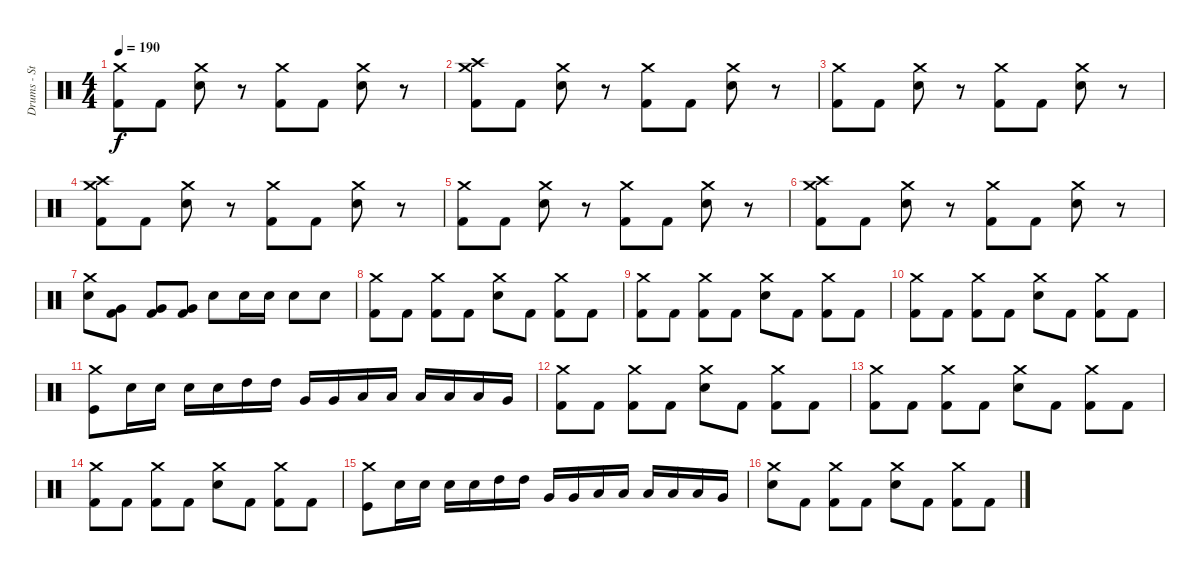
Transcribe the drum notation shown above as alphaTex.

\track ("Drums - Stevo 32" "Drums - St") {instrument percussion}
\staff {score}
\articulation defaults
\ts (4 4)
\tempo 190
\clef neutral
\ks c
("Crash medium (hit)" "Kick (hit) 2").8{dy f} "Kick (hit) 2".8 ("Crash medium (hit)" "Electric Snare (hit)").8 r.8 ("Crash medium (hit)" "Kick (hit) 2").8 "Kick (hit) 2".8 ("Crash medium (hit)" "Electric Snare (hit)").8 r.8 |
("Crash high (hit)" "Crash medium (hit)" "Kick (hit) 2").8 "Kick (hit) 2".8 ("Crash medium (hit)" "Electric Snare (hit)").8 r.8 ("Crash medium (hit)" "Kick (hit) 2").8 "Kick (hit) 2".8 ("Crash medium (hit)" "Electric Snare (hit)").8 r.8 |
("Crash medium (hit)" "Kick (hit) 2").8 "Kick (hit) 2".8 ("Crash medium (hit)" "Electric Snare (hit)").8 r.8 ("Crash medium (hit)" "Kick (hit) 2").8 "Kick (hit) 2".8 ("Crash medium (hit)" "Electric Snare (hit)").8 r.8 |
("Crash high (hit)" "Crash medium (hit)" "Kick (hit) 2").8 "Kick (hit) 2".8 ("Crash medium (hit)" "Electric Snare (hit)").8 r.8 ("Crash medium (hit)" "Kick (hit) 2").8 "Kick (hit) 2".8 ("Crash medium (hit)" "Electric Snare (hit)").8 r.8 |
("Crash medium (hit)" "Kick (hit) 2").8 "Kick (hit) 2".8 ("Crash medium (hit)" "Electric Snare (hit)").8 r.8 ("Crash medium (hit)" "Kick (hit) 2").8 "Kick (hit) 2".8 ("Crash medium (hit)" "Electric Snare (hit)").8 r.8 |
("Crash high (hit)" "Crash medium (hit)" "Kick (hit) 2").8 "Kick (hit) 2".8 ("Crash medium (hit)" "Electric Snare (hit)").8 r.8 ("Crash medium (hit)" "Kick (hit) 2").8 "Kick (hit) 2".8 ("Crash medium (hit)" "Electric Snare (hit)").8 r.8 |
("Crash medium (hit)" "Electric Snare (hit)").8 ("Very Low Tom (hit)" "Kick (hit) 2").8 ("Very Low Tom (hit)" "Kick (hit) 2").8 ("Very Low Tom (hit)" "Kick (hit) 2").8 "Electric Snare (hit)".8 "Electric Snare (hit)".16 "Electric Snare (hit)".16 "Electric Snare (hit)".8 "Electric Snare (hit)".8 |
("Crash medium (hit)" "Kick (hit) 2").8 "Kick (hit) 2".8 ("Crash medium (hit)" "Kick (hit) 2").8 "Kick (hit) 2".8 ("Crash medium (hit)" "Electric Snare (hit)").8 "Kick (hit) 2".8 ("Crash medium (hit)" "Kick (hit) 2").8 "Kick (hit) 2".8 |
("Crash medium (hit)" "Kick (hit) 2").8 "Kick (hit) 2".8 ("Crash medium (hit)" "Kick (hit) 2").8 "Kick (hit) 2".8 ("Crash medium (hit)" "Electric Snare (hit)").8 "Kick (hit) 2".8 ("Crash medium (hit)" "Kick (hit) 2").8 "Kick (hit) 2".8 |
("Crash medium (hit)" "Kick (hit) 2").8 "Kick (hit) 2".8 ("Crash medium (hit)" "Kick (hit) 2").8 "Kick (hit) 2".8 ("Crash medium (hit)" "Electric Snare (hit)").8 "Kick (hit) 2".8 ("Crash medium (hit)" "Kick (hit) 2").8 "Kick (hit) 2".8 |
("Crash medium (hit)" "Kick (hit)").8 "Electric Snare (hit)".16 "Electric Snare (hit)".16 "Electric Snare (hit)".16 "Electric Snare (hit)".16 "High Tom (hit)".16 "High Tom (hit)".16 "Very Low Tom (hit)".16 "Very Low Tom (hit)".16 "Low Floor Tom (hit)".16 "Low Floor Tom (hit)".16 "Low Tom (hit)".16 "Low Tom (hit)".16 "Low Tom (hit)".16 "Very Low Tom (hit)".16 |
("Crash medium (hit)" "Kick (hit) 2").8 "Kick (hit) 2".8 ("Crash medium (hit)" "Kick (hit) 2").8 "Kick (hit) 2".8 ("Crash medium (hit)" "Electric Snare (hit)").8 "Kick (hit) 2".8 ("Crash medium (hit)" "Kick (hit) 2").8 "Kick (hit) 2".8 |
("Crash medium (hit)" "Kick (hit) 2").8 "Kick (hit) 2".8 ("Crash medium (hit)" "Kick (hit) 2").8 "Kick (hit) 2".8 ("Crash medium (hit)" "Electric Snare (hit)").8 "Kick (hit) 2".8 ("Crash medium (hit)" "Kick (hit) 2").8 "Kick (hit) 2".8 |
("Crash medium (hit)" "Kick (hit) 2").8 "Kick (hit) 2".8 ("Crash medium (hit)" "Kick (hit) 2").8 "Kick (hit) 2".8 ("Crash medium (hit)" "Electric Snare (hit)").8 "Kick (hit) 2".8 ("Crash medium (hit)" "Kick (hit) 2").8 "Kick (hit) 2".8 |
("Crash medium (hit)" "Kick (hit)").8 "Electric Snare (hit)".16 "Electric Snare (hit)".16 "Electric Snare (hit)".16 "Electric Snare (hit)".16 "High Tom (hit)".16 "High Tom (hit)".16 "Very Low Tom (hit)".16 "Very Low Tom (hit)".16 "Low Floor Tom (hit)".16 "Low Floor Tom (hit)".16 "Low Tom (hit)".16 "Low Tom (hit)".16 "Low Tom (hit)".16 "Very Low Tom (hit)".16 |
("Crash medium (hit)" "Electric Snare (hit)").8 "Kick (hit) 2".8 ("Crash medium (hit)" "Kick (hit) 2").8 "Kick (hit) 2".8 ("Crash medium (hit)" "Electric Snare (hit)").8 "Kick (hit) 2".8 ("Crash medium (hit)" "Kick (hit) 2").8 "Kick (hit) 2".8
